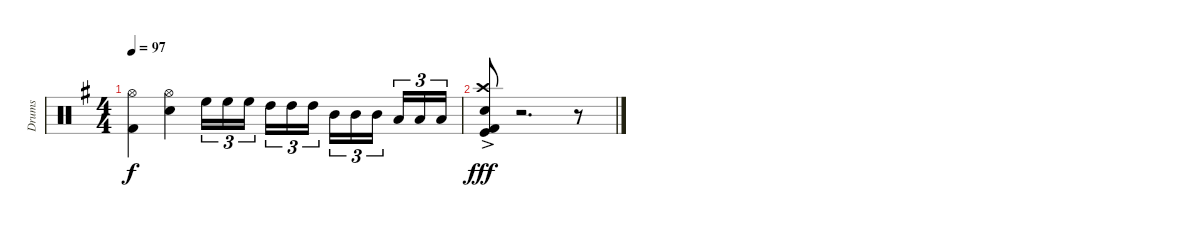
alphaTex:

\track ("Drums" "Drums") {instrument percussion}
\staff {score}
\articulation defaults
\ts (4 4)
\tempo 97
\clef neutral
\ks g
("Hi-Hat (open)" "Kick (hit) 2").4{dy f} ("Hi-Hat (open)" "Snare (hit) 2").4 "High Floor Tom (hit)".16{tu (3 2)} "High Floor Tom (hit)".16{tu (3 2)} "High Floor Tom (hit)".16{tu (3 2)} "High Tom (hit)".16{tu (3 2)} "High Tom (hit)".16{tu (3 2)} "High Tom (hit)".16{tu (3 2)} "Mid Tom (hit)".16{tu (3 2)} "Mid Tom (hit)".16{tu (3 2)} "Mid Tom (hit)".16{tu (3 2)} "Low Tom (hit)".16{tu (3 2)} "Low Tom (hit)".16{tu (3 2)} "Low Tom (hit)".16{tu (3 2)} |
("Crash high (hit)"{ac} "Snare (hit) 2"{ac} "Kick (hit) 2"{ac} "Kick (hit)"{ac}).8{dy fff} r.2{d} r.8
